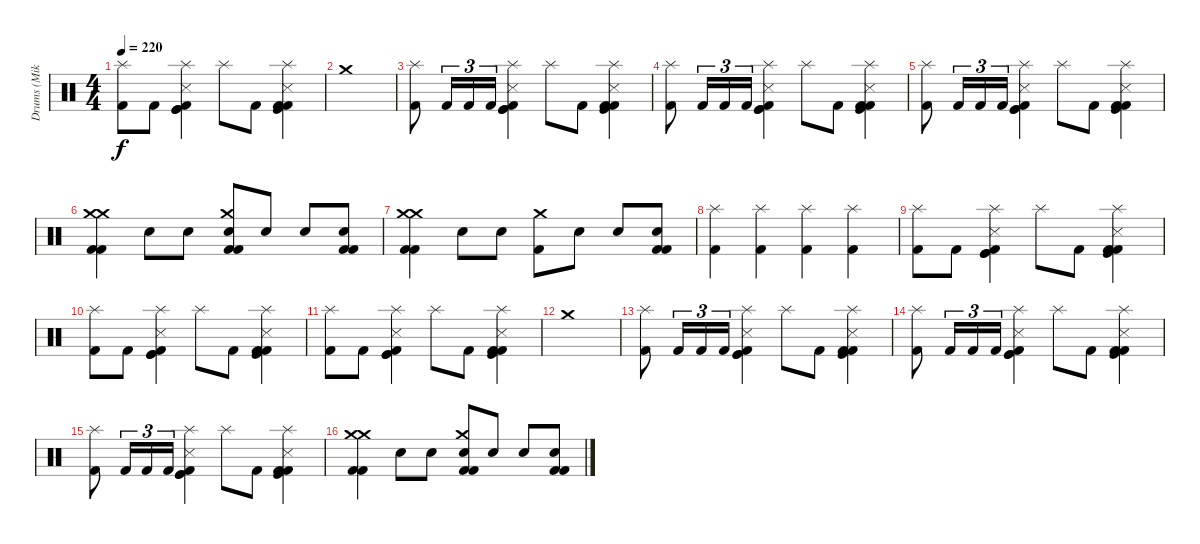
\track ("Drums (Mike Justian)" "Drums (Mik") {instrument percussion}
\staff {score}
\articulation defaults
\ts (4 4)
\tempo 220
\clef neutral
\ks c
("Splash (hit)" "Kick (hit) 2").8{dy f} "Kick (hit) 2".8 ("Splash (hit)" "Snare (side stick) 3" "Kick (hit) 2" "Kick (hit)" "Kick (hit)").4 "Splash (hit)".8 "Kick (hit) 2".8 ("Splash (hit)" "Snare (side stick) 3" "Kick (hit)" "Kick (hit) 2" "Kick (hit) 2").4 |
"Crash medium (hit)".1 |
("Splash (hit)" "Kick (hit) 2").8 "Kick (hit) 2".16{tu (3 2)} "Kick (hit) 2".16{tu (3 2)} "Kick (hit) 2".16{tu (3 2)} ("Splash (hit)" "Snare (side stick) 3" "Kick (hit) 2" "Kick (hit)" "Kick (hit)").4 "Splash (hit)".8 "Kick (hit) 2".8 ("Splash (hit)" "Snare (side stick) 3" "Kick (hit)" "Kick (hit) 2" "Kick (hit) 2").4 |
("Splash (hit)" "Kick (hit) 2").8 "Kick (hit) 2".16{tu (3 2)} "Kick (hit) 2".16{tu (3 2)} "Kick (hit) 2".16{tu (3 2)} ("Splash (hit)" "Snare (side stick) 3" "Kick (hit) 2" "Kick (hit)" "Kick (hit)").4 "Splash (hit)".8 "Kick (hit) 2".8 ("Splash (hit)" "Snare (side stick) 3" "Kick (hit)" "Kick (hit) 2" "Kick (hit) 2").4 |
("Splash (hit)" "Kick (hit) 2").8 "Kick (hit) 2".16{tu (3 2)} "Kick (hit) 2".16{tu (3 2)} "Kick (hit) 2".16{tu (3 2)} ("Splash (hit)" "Snare (side stick) 3" "Kick (hit) 2" "Kick (hit)" "Kick (hit)").4 "Splash (hit)".8 "Kick (hit) 2".8 ("Splash (hit)" "Snare (side stick) 3" "Kick (hit)" "Kick (hit) 2" "Kick (hit) 2").4 |
("Crash medium (hit)" "Kick (hit) 2" "Crash medium (hit)" "Kick (hit) 2").4 "Electric Snare (hit)".8 "Electric Snare (hit)".8 ("Crash medium (hit)" "Kick (hit) 2" "Electric Snare (hit)" "Kick (hit) 2").8 "Electric Snare (hit)".8 "Electric Snare (hit)".8 ("Electric Snare (hit)" "Kick (hit) 2" "Kick (hit) 2").8 |
("Crash medium (hit)" "Kick (hit) 2" "Crash medium (hit)" "Kick (hit) 2").4 "Electric Snare (hit)".8 "Electric Snare (hit)".8 ("Crash medium (hit)" "Kick (hit) 2").8 "Electric Snare (hit)".8 "Electric Snare (hit)".8 ("Electric Snare (hit)" "Kick (hit) 2" "Kick (hit) 2").8 |
("Splash (hit)" "Kick (hit) 2").4 ("Splash (hit)" "Kick (hit) 2").4 ("Splash (hit)" "Kick (hit) 2").4 ("Splash (hit)" "Kick (hit) 2").4 |
("Splash (hit)" "Kick (hit) 2").8 "Kick (hit) 2".8 ("Splash (hit)" "Snare (side stick) 3" "Kick (hit) 2" "Kick (hit)" "Kick (hit)").4 "Splash (hit)".8 "Kick (hit) 2".8 ("Splash (hit)" "Snare (side stick) 3" "Kick (hit)" "Kick (hit) 2" "Kick (hit) 2").4 |
("Splash (hit)" "Kick (hit) 2").8 "Kick (hit) 2".8 ("Splash (hit)" "Snare (side stick) 3" "Kick (hit) 2" "Kick (hit)" "Kick (hit)").4 "Splash (hit)".8 "Kick (hit) 2".8 ("Splash (hit)" "Snare (side stick) 3" "Kick (hit)" "Kick (hit) 2" "Kick (hit) 2").4 |
("Splash (hit)" "Kick (hit) 2").8 "Kick (hit) 2".8 ("Splash (hit)" "Snare (side stick) 3" "Kick (hit) 2" "Kick (hit)" "Kick (hit)").4 "Splash (hit)".8 "Kick (hit) 2".8 ("Splash (hit)" "Snare (side stick) 3" "Kick (hit)" "Kick (hit) 2" "Kick (hit) 2").4 |
"Crash medium (hit)".1 |
("Splash (hit)" "Kick (hit) 2").8 "Kick (hit) 2".16{tu (3 2)} "Kick (hit) 2".16{tu (3 2)} "Kick (hit) 2".16{tu (3 2)} ("Splash (hit)" "Snare (side stick) 3" "Kick (hit) 2" "Kick (hit)" "Kick (hit)").4 "Splash (hit)".8 "Kick (hit) 2".8 ("Splash (hit)" "Snare (side stick) 3" "Kick (hit)" "Kick (hit) 2" "Kick (hit) 2").4 |
("Splash (hit)" "Kick (hit) 2").8 "Kick (hit) 2".16{tu (3 2)} "Kick (hit) 2".16{tu (3 2)} "Kick (hit) 2".16{tu (3 2)} ("Splash (hit)" "Snare (side stick) 3" "Kick (hit) 2" "Kick (hit)" "Kick (hit)").4 "Splash (hit)".8 "Kick (hit) 2".8 ("Splash (hit)" "Snare (side stick) 3" "Kick (hit)" "Kick (hit) 2" "Kick (hit) 2").4 |
("Splash (hit)" "Kick (hit) 2").8 "Kick (hit) 2".16{tu (3 2)} "Kick (hit) 2".16{tu (3 2)} "Kick (hit) 2".16{tu (3 2)} ("Splash (hit)" "Snare (side stick) 3" "Kick (hit) 2" "Kick (hit)" "Kick (hit)").4 "Splash (hit)".8 "Kick (hit) 2".8 ("Splash (hit)" "Snare (side stick) 3" "Kick (hit)" "Kick (hit) 2" "Kick (hit) 2").4 |
("Crash medium (hit)" "Kick (hit) 2" "Crash medium (hit)" "Kick (hit) 2").4 "Electric Snare (hit)".8 "Electric Snare (hit)".8 ("Crash medium (hit)" "Kick (hit) 2" "Electric Snare (hit)" "Kick (hit) 2").8 "Electric Snare (hit)".8 "Electric Snare (hit)".8 ("Electric Snare (hit)" "Kick (hit) 2" "Kick (hit) 2").8
